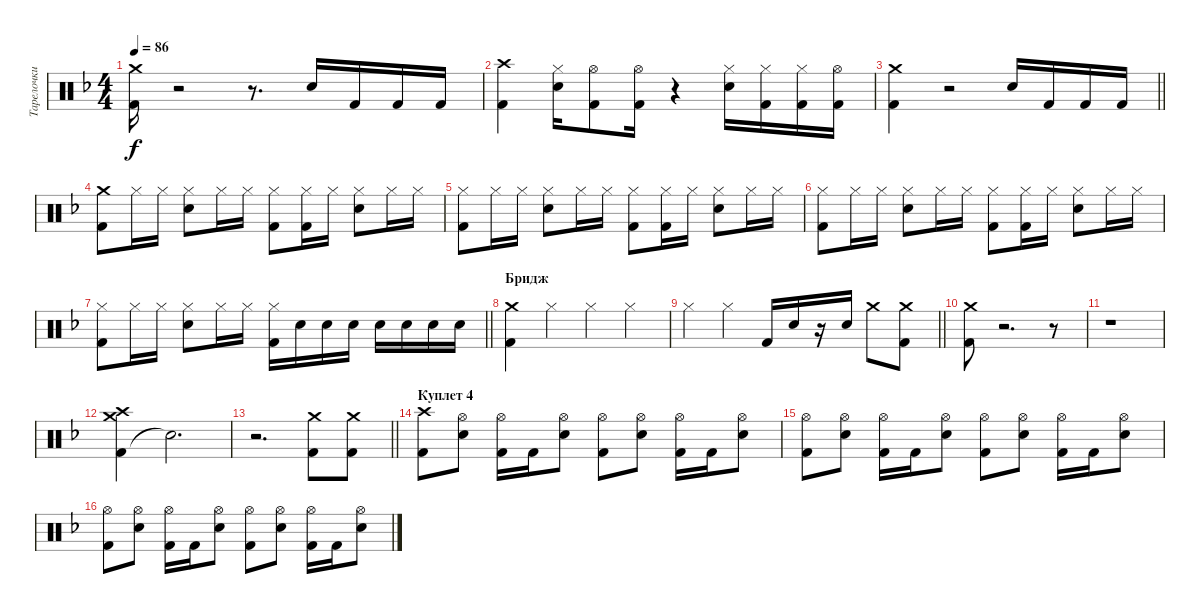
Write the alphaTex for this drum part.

\track ("Тарелочки" "Тарелочки") {instrument percussion}
\staff {score}
\articulation defaults
\ts (4 4)
\tempo 86
\clef neutral
\ks f
("Kick (hit) 2" "Crash medium (hit)").16{dy f} r.2 r.8{d} "Snare (hit) 2".16 "Kick (hit) 2".16 "Kick (hit) 2".16 "Kick (hit) 2".16 |
("Kick (hit) 2" "Crash high (hit)").4 ("Snare (hit) 2" "Hi-Hat (closed)").16 ("Kick (hit) 2" "Hi-Hat (open)").8 ("Kick (hit) 2" "Hi-Hat (open)").16 r.4 ("Snare (hit) 2" "Hi-Hat (closed)").16 ("Kick (hit) 2" "Hi-Hat (closed)").16 ("Kick (hit) 2" "Hi-Hat (closed)").16 ("Kick (hit) 2" "Hi-Hat (open)").16 |
\barLineRight lightlight
("Kick (hit) 2" "Crash medium (hit)").4 r.2 "Snare (hit) 2".16 "Kick (hit) 2".16 "Kick (hit) 2".16 "Kick (hit) 2".16 |
("Crash medium (hit)" "Kick (hit) 2").8 "Hi-Hat (closed)".16 "Hi-Hat (closed)".16 ("Hi-Hat (closed)" "Snare (hit) 2").8 "Hi-Hat (closed)".16 "Hi-Hat (closed)".16 ("Hi-Hat (closed)" "Kick (hit) 2").8 ("Hi-Hat (closed)" "Kick (hit) 2").16 "Hi-Hat (closed)".16 ("Hi-Hat (closed)" "Snare (hit) 2").8 "Hi-Hat (closed)".16 "Hi-Hat (closed)".16 |
("Hi-Hat (closed)" "Kick (hit) 2").8 "Hi-Hat (closed)".16 "Hi-Hat (closed)".16 ("Hi-Hat (closed)" "Snare (hit) 2").8 "Hi-Hat (closed)".16 "Hi-Hat (closed)".16 ("Hi-Hat (closed)" "Kick (hit) 2").8 ("Hi-Hat (closed)" "Kick (hit) 2").16 "Hi-Hat (closed)".16 ("Hi-Hat (closed)" "Snare (hit) 2").8 "Hi-Hat (closed)".16 "Hi-Hat (closed)".16 |
("Hi-Hat (closed)" "Kick (hit) 2").8 "Hi-Hat (closed)".16 "Hi-Hat (closed)".16 ("Hi-Hat (closed)" "Snare (hit) 2").8 "Hi-Hat (closed)".16 "Hi-Hat (closed)".16 ("Hi-Hat (closed)" "Kick (hit) 2").8 ("Hi-Hat (closed)" "Kick (hit) 2").16 "Hi-Hat (closed)".16 ("Hi-Hat (closed)" "Snare (hit) 2").8 "Hi-Hat (closed)".16 "Hi-Hat (closed)".16 |
\barLineRight lightlight
("Kick (hit) 2" "Hi-Hat (closed)").8 "Hi-Hat (closed)".16 "Hi-Hat (closed)".16 ("Snare (hit) 2" "Hi-Hat (closed)").8 "Hi-Hat (closed)".16 "Hi-Hat (closed)".16 ("Kick (hit) 2" "Hi-Hat (closed)").16 "Snare (hit) 2".16 "Snare (hit) 2".16 "Snare (hit) 2".16 "Snare (hit) 2".16 "Snare (hit) 2".16 "Snare (hit) 2".16 "Snare (hit) 2".16 |
\section ("" "Бридж")
("Kick (hit) 2" "Crash medium (hit)").4 "Hi-Hat (closed)".4 "Hi-Hat (closed)".4 "Hi-Hat (closed)".4 |
\barLineRight lightlight "Hi-Hat (closed)".4 "Hi-Hat (closed)".4 "Kick (hit) 2".16 "Snare (hit) 2".16
r.16 "Snare (hit) 2".16 "Crash medium (hit)".8 ("Kick (hit) 2" "Crash medium (hit)").8 |
("Kick (hit) 2" "Crash medium (hit)").8 r.2{d} r.8 |
r.1 |
("Kick (hit) 2" "Crash high (hit)" "Crash medium (hit)").4 "Snare (hit)"{t}.2{d} |
\barLineRight lightlight
r.2{d} ("Kick (hit) 2" "Crash medium (hit)").8 ("Kick (hit) 2" "Crash medium (hit)").8 |
\section ("" "Куплет 4")
("Kick (hit) 2" "Crash high (hit)").8 ("Snare (hit) 2" "Hi-Hat (open)").8 ("Kick (hit) 2" "Hi-Hat (open)").16 "Kick (hit) 2".16 ("Snare (hit) 2" "Hi-Hat (open)").8 ("Kick (hit) 2" "Hi-Hat (open)").8 ("Snare (hit) 2" "Hi-Hat (open)").8 ("Kick (hit) 2" "Hi-Hat (open)").16 "Kick (hit) 2".16 ("Snare (hit) 2" "Hi-Hat (open)").8 |
("Kick (hit) 2" "Hi-Hat (open)").8 ("Snare (hit) 2" "Hi-Hat (open)").8 ("Kick (hit) 2" "Hi-Hat (open)").16 "Kick (hit) 2".16 ("Snare (hit) 2" "Hi-Hat (open)").8 ("Kick (hit) 2" "Hi-Hat (open)").8 ("Snare (hit) 2" "Hi-Hat (open)").8 ("Kick (hit) 2" "Hi-Hat (open)").16 "Kick (hit) 2".16 ("Snare (hit) 2" "Hi-Hat (open)").8 |
("Kick (hit) 2" "Hi-Hat (open)").8 ("Snare (hit) 2" "Hi-Hat (open)").8 ("Kick (hit) 2" "Hi-Hat (open)").16 "Kick (hit) 2".16 ("Snare (hit) 2" "Hi-Hat (open)").8 ("Kick (hit) 2" "Hi-Hat (open)").8 ("Snare (hit) 2" "Hi-Hat (open)").8 ("Kick (hit) 2" "Hi-Hat (open)").16 "Kick (hit) 2".16 ("Snare (hit) 2" "Hi-Hat (open)").8
